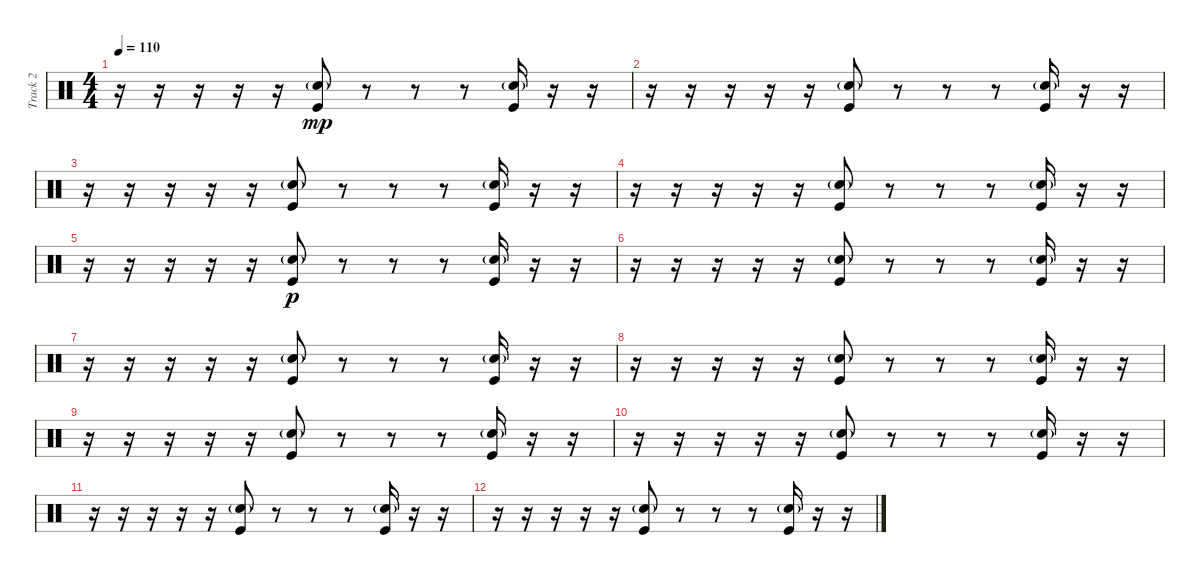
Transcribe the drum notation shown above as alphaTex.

\track ("Track 2" "Track 2") {instrument percussion}
\staff {score}
\articulation defaults
\ts (4 4)
\tempo 110
\clef neutral
\ks c
r.16{dy mp} r.16 r.16 r.16 r.16 ("Kick (hit)" "Hand Clap (hit)"{g}).8 r.8 r.8 r.8 ("Kick (hit)" "Hand Clap (hit)"{g}).16 r.16 r.16 |
r.16 r.16 r.16 r.16 r.16 ("Kick (hit)" "Hand Clap (hit)"{g}).8 r.8 r.8 r.8 ("Kick (hit)" "Hand Clap (hit)"{g}).16 r.16 r.16 |
r.16 r.16 r.16 r.16 r.16 ("Kick (hit)" "Hand Clap (hit)"{g}).8 r.8 r.8 r.8 ("Kick (hit)" "Hand Clap (hit)"{g}).16 r.16 r.16 |
r.16 r.16 r.16 r.16 r.16 ("Kick (hit)" "Hand Clap (hit)"{g}).8 r.8 r.8 r.8 ("Kick (hit)" "Hand Clap (hit)"{g}).16 r.16 r.16 |
r.16 r.16 r.16 r.16 r.16 ("Kick (hit)" "Hand Clap (hit)"{g}).8{dy p} r.8 r.8 r.8 ("Kick (hit)" "Hand Clap (hit)"{g}).16 r.16 r.16 |
r.16 r.16 r.16 r.16 r.16 ("Kick (hit)" "Hand Clap (hit)"{g}).8 r.8 r.8 r.8 ("Kick (hit)" "Hand Clap (hit)"{g}).16 r.16 r.16 |
r.16 r.16 r.16 r.16 r.16 ("Kick (hit)" "Hand Clap (hit)"{g}).8 r.8 r.8 r.8 ("Kick (hit)" "Hand Clap (hit)"{g}).16 r.16 r.16 |
r.16 r.16 r.16 r.16 r.16 ("Kick (hit)" "Hand Clap (hit)"{g}).8 r.8 r.8 r.8 ("Kick (hit)" "Hand Clap (hit)"{g}).16 r.16 r.16 |
r.16 r.16 r.16 r.16 r.16 ("Kick (hit)" "Hand Clap (hit)"{g}).8 r.8 r.8 r.8 ("Kick (hit)" "Hand Clap (hit)"{g}).16 r.16 r.16 |
r.16 r.16 r.16 r.16 r.16 ("Kick (hit)" "Hand Clap (hit)"{g}).8 r.8 r.8 r.8 ("Kick (hit)" "Hand Clap (hit)"{g}).16 r.16 r.16 |
r.16 r.16 r.16 r.16 r.16 ("Kick (hit)" "Hand Clap (hit)"{g}).8 r.8 r.8 r.8 ("Kick (hit)" "Hand Clap (hit)"{g}).16 r.16 r.16 |
r.16 r.16 r.16 r.16 r.16 ("Kick (hit)" "Hand Clap (hit)"{g}).8 r.8 r.8 r.8 ("Kick (hit)" "Hand Clap (hit)"{g}).16 r.16 r.16
